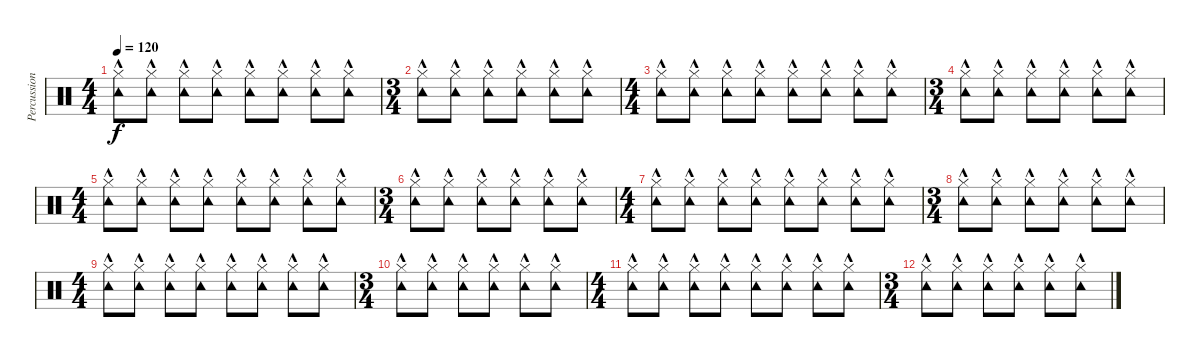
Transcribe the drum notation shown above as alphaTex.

\track ("Percussion" "Percussion") {instrument percussion}
\staff {score}
\articulation defaults
\ts (4 4)
\tempo 120
\clef neutral
\ks c
("Tambourine (hit)"{hac} "Hi-Hat (closed)").8{dy f} ("Tambourine (hit)"{hac} "Hi-Hat (closed)").8 ("Tambourine (hit)"{hac} "Hi-Hat (closed)").8 ("Tambourine (hit)"{hac} "Hi-Hat (closed)").8 ("Tambourine (hit)"{hac} "Hi-Hat (closed)").8 ("Tambourine (hit)"{hac} "Hi-Hat (closed)").8 ("Tambourine (hit)"{hac} "Hi-Hat (closed)").8 ("Tambourine (hit)"{hac} "Hi-Hat (closed)").8 |
\ts (3 4)
("Tambourine (hit)"{hac} "Hi-Hat (closed)").8 ("Tambourine (hit)"{hac} "Hi-Hat (closed)").8 ("Tambourine (hit)"{hac} "Hi-Hat (closed)").8 ("Tambourine (hit)"{hac} "Hi-Hat (closed)").8 ("Tambourine (hit)"{hac} "Hi-Hat (closed)").8 ("Tambourine (hit)"{hac} "Hi-Hat (closed)").8 |
\ts (4 4)
("Tambourine (hit)"{hac} "Hi-Hat (closed)").8 ("Tambourine (hit)"{hac} "Hi-Hat (closed)").8 ("Tambourine (hit)"{hac} "Hi-Hat (closed)").8 ("Tambourine (hit)"{hac} "Hi-Hat (closed)").8 ("Tambourine (hit)"{hac} "Hi-Hat (closed)").8 ("Tambourine (hit)"{hac} "Hi-Hat (closed)").8 ("Tambourine (hit)"{hac} "Hi-Hat (closed)").8 ("Tambourine (hit)"{hac} "Hi-Hat (closed)").8 |
\ts (3 4)
("Tambourine (hit)"{hac} "Hi-Hat (closed)").8 ("Tambourine (hit)"{hac} "Hi-Hat (closed)").8 ("Tambourine (hit)"{hac} "Hi-Hat (closed)").8 ("Tambourine (hit)"{hac} "Hi-Hat (closed)").8 ("Tambourine (hit)"{hac} "Hi-Hat (closed)").8 ("Tambourine (hit)"{hac} "Hi-Hat (closed)").8 |
\ts (4 4)
("Tambourine (hit)"{hac} "Hi-Hat (closed)").8 ("Tambourine (hit)"{hac} "Hi-Hat (closed)").8 ("Tambourine (hit)"{hac} "Hi-Hat (closed)").8 ("Tambourine (hit)"{hac} "Hi-Hat (closed)").8 ("Tambourine (hit)"{hac} "Hi-Hat (closed)").8 ("Tambourine (hit)"{hac} "Hi-Hat (closed)").8 ("Tambourine (hit)"{hac} "Hi-Hat (closed)").8 ("Tambourine (hit)"{hac} "Hi-Hat (closed)").8 |
\ts (3 4)
("Tambourine (hit)"{hac} "Hi-Hat (closed)").8 ("Tambourine (hit)"{hac} "Hi-Hat (closed)").8 ("Tambourine (hit)"{hac} "Hi-Hat (closed)").8 ("Tambourine (hit)"{hac} "Hi-Hat (closed)").8 ("Tambourine (hit)"{hac} "Hi-Hat (closed)").8 ("Tambourine (hit)"{hac} "Hi-Hat (closed)").8 |
\ts (4 4)
("Tambourine (hit)"{hac} "Hi-Hat (closed)").8 ("Tambourine (hit)"{hac} "Hi-Hat (closed)").8 ("Tambourine (hit)"{hac} "Hi-Hat (closed)").8 ("Tambourine (hit)"{hac} "Hi-Hat (closed)").8 ("Tambourine (hit)"{hac} "Hi-Hat (closed)").8 ("Tambourine (hit)"{hac} "Hi-Hat (closed)").8 ("Tambourine (hit)"{hac} "Hi-Hat (closed)").8 ("Tambourine (hit)"{hac} "Hi-Hat (closed)").8 |
\ts (3 4)
("Tambourine (hit)"{hac} "Hi-Hat (closed)").8 ("Tambourine (hit)"{hac} "Hi-Hat (closed)").8 ("Tambourine (hit)"{hac} "Hi-Hat (closed)").8 ("Tambourine (hit)"{hac} "Hi-Hat (closed)").8 ("Tambourine (hit)"{hac} "Hi-Hat (closed)").8 ("Tambourine (hit)"{hac} "Hi-Hat (closed)").8 |
\ts (4 4)
("Tambourine (hit)"{hac} "Hi-Hat (closed)").8 ("Tambourine (hit)"{hac} "Hi-Hat (closed)").8 ("Tambourine (hit)"{hac} "Hi-Hat (closed)").8 ("Tambourine (hit)"{hac} "Hi-Hat (closed)").8 ("Tambourine (hit)"{hac} "Hi-Hat (closed)").8 ("Tambourine (hit)"{hac} "Hi-Hat (closed)").8 ("Tambourine (hit)"{hac} "Hi-Hat (closed)").8 ("Tambourine (hit)"{hac} "Hi-Hat (closed)").8 |
\ts (3 4)
("Tambourine (hit)"{hac} "Hi-Hat (closed)").8 ("Tambourine (hit)"{hac} "Hi-Hat (closed)").8 ("Tambourine (hit)"{hac} "Hi-Hat (closed)").8 ("Tambourine (hit)"{hac} "Hi-Hat (closed)").8 ("Tambourine (hit)"{hac} "Hi-Hat (closed)").8 ("Tambourine (hit)"{hac} "Hi-Hat (closed)").8 |
\ts (4 4)
("Tambourine (hit)"{hac} "Hi-Hat (closed)").8 ("Tambourine (hit)"{hac} "Hi-Hat (closed)").8 ("Tambourine (hit)"{hac} "Hi-Hat (closed)").8 ("Tambourine (hit)"{hac} "Hi-Hat (closed)").8 ("Tambourine (hit)"{hac} "Hi-Hat (closed)").8 ("Tambourine (hit)"{hac} "Hi-Hat (closed)").8 ("Tambourine (hit)"{hac} "Hi-Hat (closed)").8 ("Tambourine (hit)"{hac} "Hi-Hat (closed)").8 |
\ts (3 4)
("Tambourine (hit)"{hac} "Hi-Hat (closed)").8 ("Tambourine (hit)"{hac} "Hi-Hat (closed)").8 ("Tambourine (hit)"{hac} "Hi-Hat (closed)").8 ("Tambourine (hit)"{hac} "Hi-Hat (closed)").8 ("Tambourine (hit)"{hac} "Hi-Hat (closed)").8 ("Tambourine (hit)"{hac} "Hi-Hat (closed)").8
